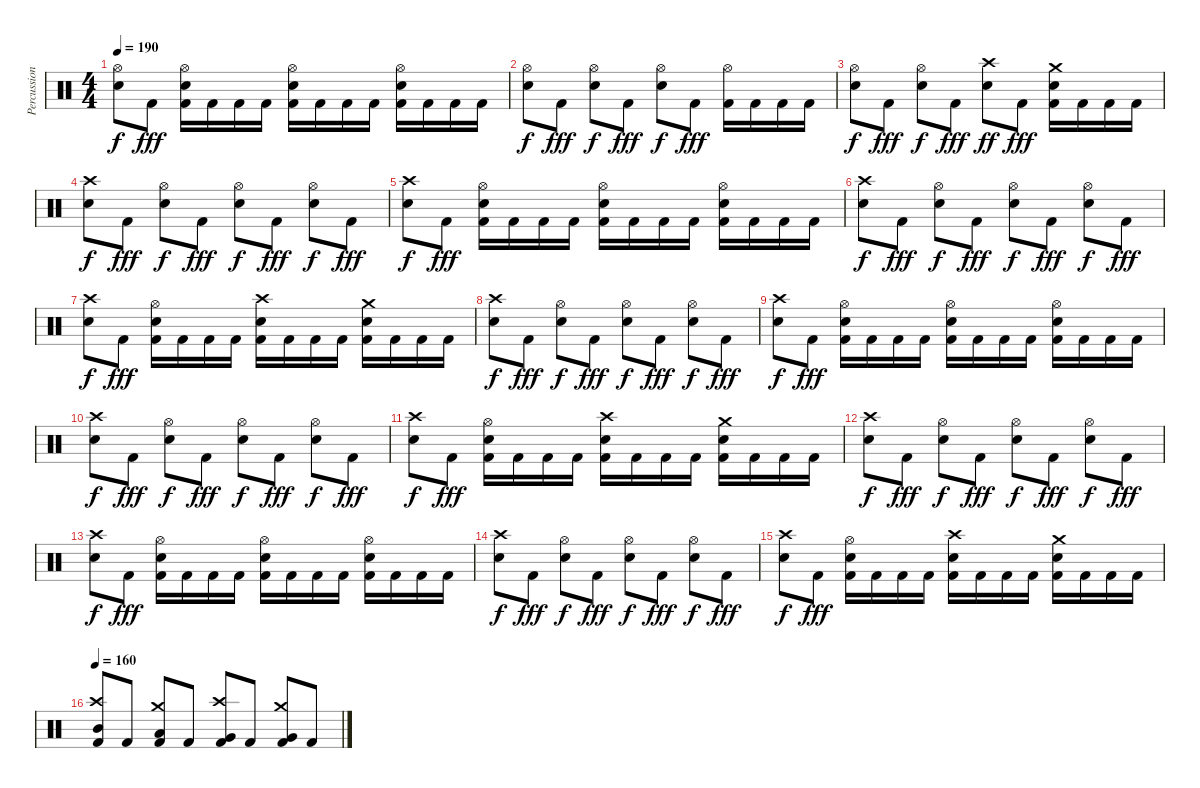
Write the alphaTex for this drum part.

\track ("Percussion" "Percussion") {instrument percussion}
\staff {score}
\articulation defaults
\ts (4 4)
\tempo 190
\clef neutral
\ks c
("Hi-Hat (open)" "Electric Snare (hit)").8{dy f} "Kick (hit) 2".8{dy fff} ("Hi-Hat (open)" "Electric Snare (hit)" "Kick (hit) 2").16 "Kick (hit) 2".16 "Kick (hit) 2".16 "Kick (hit) 2".16 ("Hi-Hat (open)" "Electric Snare (hit)" "Kick (hit) 2").16 "Kick (hit) 2".16 "Kick (hit) 2".16 "Kick (hit) 2".16 ("Hi-Hat (open)" "Electric Snare (hit)" "Kick (hit) 2").16 "Kick (hit) 2".16 "Kick (hit) 2".16 "Kick (hit) 2".16 |
("Hi-Hat (open)" "Electric Snare (hit)").8{dy f} "Kick (hit) 2".8{dy fff} ("Hi-Hat (open)" "Electric Snare (hit)").8{dy f} "Kick (hit) 2".8{dy fff} ("Hi-Hat (open)" "Electric Snare (hit)").8{dy f} "Kick (hit) 2".8{dy fff} ("Hi-Hat (open)" "Kick (hit) 2").16 "Kick (hit) 2".16 "Kick (hit) 2".16 "Kick (hit) 2".16 |
("Hi-Hat (open)" "Electric Snare (hit)").8{dy f} "Kick (hit) 2".8{dy fff} ("Hi-Hat (open)" "Electric Snare (hit)").8{dy f} "Kick (hit) 2".8{dy fff} ("Crash high (hit)" "Electric Snare (hit)").8{dy ff} "Kick (hit) 2".8{dy fff} ("Crash medium (hit)" "Electric Snare (hit)" "Kick (hit) 2").16 "Kick (hit) 2".16 "Kick (hit) 2".16 "Kick (hit) 2".16 |
("Crash high (hit)" "Electric Snare (hit)").8{dy f} "Kick (hit) 2".8{dy fff} ("Hi-Hat (open)" "Electric Snare (hit)").8{dy f} "Kick (hit) 2".8{dy fff} ("Hi-Hat (open)" "Electric Snare (hit)").8{dy f} "Kick (hit) 2".8{dy fff} ("Hi-Hat (open)" "Electric Snare (hit)").8{dy f} "Kick (hit) 2".8{dy fff} |
("Crash high (hit)" "Electric Snare (hit)").8{dy f} "Kick (hit) 2".8{dy fff} ("Hi-Hat (open)" "Electric Snare (hit)" "Kick (hit) 2").16 "Kick (hit) 2".16 "Kick (hit) 2".16 "Kick (hit) 2".16 ("Hi-Hat (open)" "Electric Snare (hit)" "Kick (hit) 2").16 "Kick (hit) 2".16 "Kick (hit) 2".16 "Kick (hit) 2".16 ("Hi-Hat (open)" "Electric Snare (hit)" "Kick (hit) 2").16 "Kick (hit) 2".16 "Kick (hit) 2".16 "Kick (hit) 2".16 |
("Crash high (hit)" "Electric Snare (hit)").8{dy f} "Kick (hit) 2".8{dy fff} ("Hi-Hat (open)" "Electric Snare (hit)").8{dy f} "Kick (hit) 2".8{dy fff} ("Hi-Hat (open)" "Electric Snare (hit)").8{dy f} "Kick (hit) 2".8{dy fff} ("Hi-Hat (open)" "Electric Snare (hit)").8{dy f} "Kick (hit) 2".8{dy fff} |
("Crash high (hit)" "Electric Snare (hit)").8{dy f} "Kick (hit) 2".8{dy fff} ("Hi-Hat (open)" "Electric Snare (hit)" "Kick (hit) 2").16 "Kick (hit) 2".16 "Kick (hit) 2".16 "Kick (hit) 2".16 ("Crash high (hit)" "Electric Snare (hit)" "Kick (hit) 2").16 "Kick (hit) 2".16 "Kick (hit) 2".16 "Kick (hit) 2".16 ("Crash medium (hit)" "Electric Snare (hit)" "Kick (hit) 2").16 "Kick (hit) 2".16 "Kick (hit) 2".16 "Kick (hit) 2".16 |
("Crash high (hit)" "Electric Snare (hit)").8{dy f} "Kick (hit) 2".8{dy fff} ("Hi-Hat (open)" "Electric Snare (hit)").8{dy f} "Kick (hit) 2".8{dy fff} ("Hi-Hat (open)" "Electric Snare (hit)").8{dy f} "Kick (hit) 2".8{dy fff} ("Hi-Hat (open)" "Electric Snare (hit)").8{dy f} "Kick (hit) 2".8{dy fff} |
("Crash high (hit)" "Electric Snare (hit)").8{dy f} "Kick (hit) 2".8{dy fff} ("Hi-Hat (open)" "Electric Snare (hit)" "Kick (hit) 2").16 "Kick (hit) 2".16 "Kick (hit) 2".16 "Kick (hit) 2".16 ("Hi-Hat (open)" "Electric Snare (hit)" "Kick (hit) 2").16 "Kick (hit) 2".16 "Kick (hit) 2".16 "Kick (hit) 2".16 ("Hi-Hat (open)" "Electric Snare (hit)" "Kick (hit) 2").16 "Kick (hit) 2".16 "Kick (hit) 2".16 "Kick (hit) 2".16 |
("Crash high (hit)" "Electric Snare (hit)").8{dy f} "Kick (hit) 2".8{dy fff} ("Hi-Hat (open)" "Electric Snare (hit)").8{dy f} "Kick (hit) 2".8{dy fff} ("Hi-Hat (open)" "Electric Snare (hit)").8{dy f} "Kick (hit) 2".8{dy fff} ("Hi-Hat (open)" "Electric Snare (hit)").8{dy f} "Kick (hit) 2".8{dy fff} |
("Crash high (hit)" "Electric Snare (hit)").8{dy f} "Kick (hit) 2".8{dy fff} ("Hi-Hat (open)" "Electric Snare (hit)" "Kick (hit) 2").16 "Kick (hit) 2".16 "Kick (hit) 2".16 "Kick (hit) 2".16 ("Crash high (hit)" "Electric Snare (hit)" "Kick (hit) 2").16 "Kick (hit) 2".16 "Kick (hit) 2".16 "Kick (hit) 2".16 ("Crash medium (hit)" "Electric Snare (hit)" "Kick (hit) 2").16 "Kick (hit) 2".16 "Kick (hit) 2".16 "Kick (hit) 2".16 |
("Crash high (hit)" "Electric Snare (hit)").8{dy f} "Kick (hit) 2".8{dy fff} ("Hi-Hat (open)" "Electric Snare (hit)").8{dy f} "Kick (hit) 2".8{dy fff} ("Hi-Hat (open)" "Electric Snare (hit)").8{dy f} "Kick (hit) 2".8{dy fff} ("Hi-Hat (open)" "Electric Snare (hit)").8{dy f} "Kick (hit) 2".8{dy fff} |
("Crash high (hit)" "Electric Snare (hit)").8{dy f} "Kick (hit) 2".8{dy fff} ("Hi-Hat (open)" "Electric Snare (hit)" "Kick (hit) 2").16 "Kick (hit) 2".16 "Kick (hit) 2".16 "Kick (hit) 2".16 ("Hi-Hat (open)" "Electric Snare (hit)" "Kick (hit) 2").16 "Kick (hit) 2".16 "Kick (hit) 2".16 "Kick (hit) 2".16 ("Hi-Hat (open)" "Electric Snare (hit)" "Kick (hit) 2").16 "Kick (hit) 2".16 "Kick (hit) 2".16 "Kick (hit) 2".16 |
("Crash high (hit)" "Electric Snare (hit)").8{dy f} "Kick (hit) 2".8{dy fff} ("Hi-Hat (open)" "Electric Snare (hit)").8{dy f} "Kick (hit) 2".8{dy fff} ("Hi-Hat (open)" "Electric Snare (hit)").8{dy f} "Kick (hit) 2".8{dy fff} ("Hi-Hat (open)" "Electric Snare (hit)").8{dy f} "Kick (hit) 2".8{dy fff} |
("Crash high (hit)" "Electric Snare (hit)").8{dy f} "Kick (hit) 2".8{dy fff} ("Hi-Hat (open)" "Electric Snare (hit)" "Kick (hit) 2").16 "Kick (hit) 2".16 "Kick (hit) 2".16 "Kick (hit) 2".16 ("Crash high (hit)" "Electric Snare (hit)" "Kick (hit) 2").16 "Kick (hit) 2".16 "Kick (hit) 2".16 "Kick (hit) 2".16 ("Crash medium (hit)" "Electric Snare (hit)" "Kick (hit) 2").16 "Kick (hit) 2".16 "Kick (hit) 2".16 "Kick (hit) 2".16 |
\tempo 160
("Crash high (hit)" "Mid Tom (hit)" "Kick (hit) 2").8 "Kick (hit) 2".8 ("Crash medium (hit)" "Low Tom (hit)" "Kick (hit) 2").8 "Kick (hit) 2".8 ("Crash high (hit)" "Very Low Tom (hit)" "Kick (hit) 2").8 "Kick (hit) 2".8 ("Crash medium (hit)" "Very Low Tom (hit)" "Kick (hit) 2").8 "Kick (hit) 2".8
